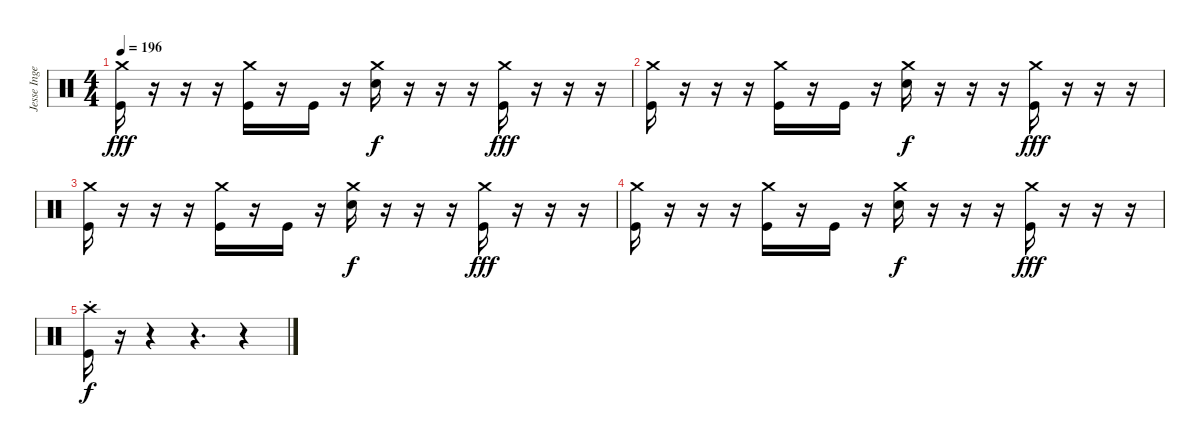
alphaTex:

\track ("Jesse Ingelevics" "Jesse Inge") {instrument percussion}
\staff {score}
\articulation defaults
\ts (4 4)
\tempo 196
\clef neutral
\ks c
("Crash medium (hit)" "Kick (hit)").16{dy fff} r.16 r.16 r.16 ("Crash medium (hit)" "Kick (hit)").16 r.16 "Kick (hit)".16 r.16 ("Crash medium (hit)" "Electric Snare (hit)").16{dy f} r.16 r.16 r.16 ("Crash medium (hit)" "Kick (hit)").16{dy fff} r.16 r.16 r.16 |
("Crash medium (hit)" "Kick (hit)").16 r.16 r.16 r.16 ("Crash medium (hit)" "Kick (hit)").16 r.16 "Kick (hit)".16 r.16 ("Crash medium (hit)" "Electric Snare (hit)").16{dy f} r.16 r.16 r.16 ("Crash medium (hit)" "Kick (hit)").16{dy fff} r.16 r.16 r.16 |
("Crash medium (hit)" "Kick (hit)").16 r.16 r.16 r.16 ("Crash medium (hit)" "Kick (hit)").16 r.16 "Kick (hit)".16 r.16 ("Crash medium (hit)" "Electric Snare (hit)").16{dy f} r.16 r.16 r.16 ("Crash medium (hit)" "Kick (hit)").16{dy fff} r.16 r.16 r.16 |
("Crash medium (hit)" "Kick (hit)").16 r.16 r.16 r.16 ("Crash medium (hit)" "Kick (hit)").16 r.16 "Kick (hit)".16 r.16 ("Crash medium (hit)" "Electric Snare (hit)").16{dy f} r.16 r.16 r.16 ("Crash medium (hit)" "Kick (hit)").16{dy fff} r.16 r.16 r.16 |
("Crash high (hit)"{st} "Kick (hit)").16{dy f} r.16 r.4 r.4{d} r.4
